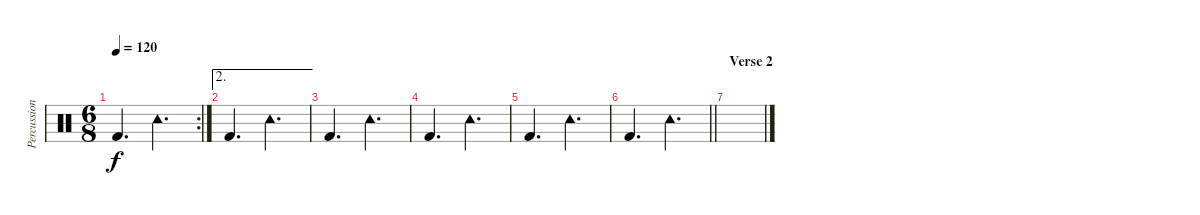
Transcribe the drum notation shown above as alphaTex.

\track ("Percussion" "Percussion") {instrument percussion}
\staff {score}
\articulation defaults
\rc 2
\ts (6 8)
\tempo 120
\clef neutral
\ks c "Kick (hit) 2".4{d dy f} "Tambourine (hit)".4{d}
|
\ae 2 "Kick (hit) 2".4{d} "Tambourine (hit)".4{d}
|
"Kick (hit) 2".4{d} "Tambourine (hit)".4{d} |
"Kick (hit) 2".4{d} "Tambourine (hit)".4{d} |
"Kick (hit) 2".4{d} "Tambourine (hit)".4{d} |
\barLineRight lightlight "Kick (hit) 2".4{d} "Tambourine (hit)".4{d}
|
\section ("" "Verse 2")
